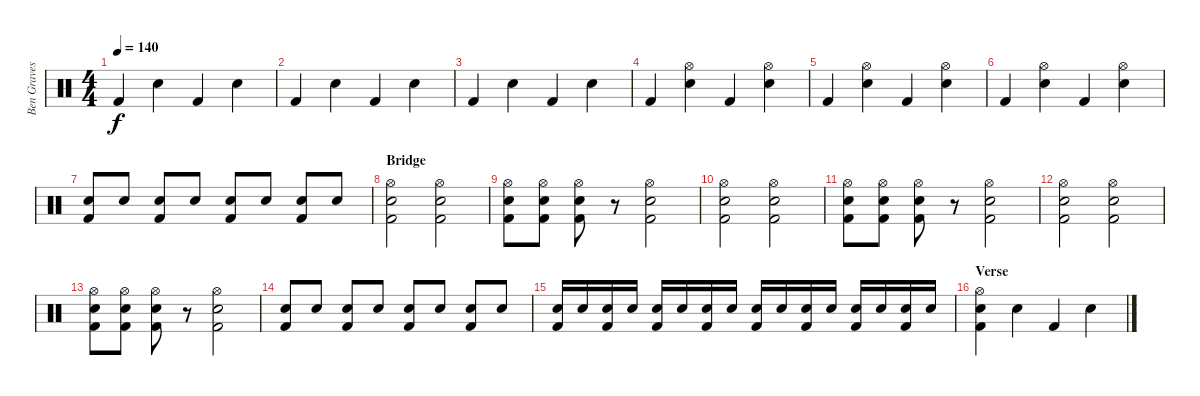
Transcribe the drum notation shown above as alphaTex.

\track ("Ben Graves" "Ben Graves") {instrument percussion}
\staff {score}
\articulation defaults
\ts (4 4)
\tempo 140
\clef neutral
\ks c "Kick (hit) 2".4{dy f} "Electric Snare (hit)".4 "Kick (hit) 2".4 "Electric Snare (hit)".4
|
"Kick (hit) 2".4 "Electric Snare (hit)".4 "Kick (hit) 2".4 "Electric Snare (hit)".4 |
"Kick (hit) 2".4 "Electric Snare (hit)".4 "Kick (hit) 2".4 "Electric Snare (hit)".4 |
"Kick (hit) 2".4 ("Electric Snare (hit)" "Hi-Hat (open)").4 "Kick (hit) 2".4 ("Electric Snare (hit)" "Hi-Hat (open)").4 |
"Kick (hit) 2".4 ("Electric Snare (hit)" "Hi-Hat (open)").4 "Kick (hit) 2".4 ("Electric Snare (hit)" "Hi-Hat (open)").4 |
"Kick (hit) 2".4 ("Electric Snare (hit)" "Hi-Hat (open)").4 "Kick (hit) 2".4 ("Electric Snare (hit)" "Hi-Hat (open)").4 |
("Kick (hit) 2" "Electric Snare (hit)").8 "Electric Snare (hit)".8 ("Kick (hit) 2" "Electric Snare (hit)").8 "Electric Snare (hit)".8 ("Kick (hit) 2" "Electric Snare (hit)").8 "Electric Snare (hit)".8 ("Kick (hit) 2" "Electric Snare (hit)").8 "Electric Snare (hit)".8 |
\section ("" "Bridge")
("Kick (hit) 2" "Electric Snare (hit)" "Hi-Hat (open)").2 ("Kick (hit) 2" "Electric Snare (hit)" "Hi-Hat (open)").2 |
("Kick (hit) 2" "Electric Snare (hit)" "Hi-Hat (open)").8 ("Kick (hit) 2" "Electric Snare (hit)" "Hi-Hat (open)").8 ("Kick (hit) 2" "Electric Snare (hit)" "Hi-Hat (open)").8 r.8 ("Kick (hit) 2" "Electric Snare (hit)" "Hi-Hat (open)").2 |
("Kick (hit) 2" "Electric Snare (hit)" "Hi-Hat (open)").2 ("Kick (hit) 2" "Electric Snare (hit)" "Hi-Hat (open)").2 |
("Kick (hit) 2" "Electric Snare (hit)" "Hi-Hat (open)").8 ("Kick (hit) 2" "Electric Snare (hit)" "Hi-Hat (open)").8 ("Kick (hit) 2" "Electric Snare (hit)" "Hi-Hat (open)").8 r.8 ("Kick (hit) 2" "Electric Snare (hit)" "Hi-Hat (open)").2 |
("Kick (hit) 2" "Electric Snare (hit)" "Hi-Hat (open)").2 ("Kick (hit) 2" "Electric Snare (hit)" "Hi-Hat (open)").2 |
("Kick (hit) 2" "Electric Snare (hit)" "Hi-Hat (open)").8 ("Kick (hit) 2" "Electric Snare (hit)" "Hi-Hat (open)").8 ("Kick (hit) 2" "Electric Snare (hit)" "Hi-Hat (open)").8 r.8 ("Kick (hit) 2" "Electric Snare (hit)" "Hi-Hat (open)").2 |
("Kick (hit) 2" "Electric Snare (hit)").8 "Electric Snare (hit)".8 ("Kick (hit) 2" "Electric Snare (hit)").8 "Electric Snare (hit)".8 ("Kick (hit) 2" "Electric Snare (hit)").8 "Electric Snare (hit)".8 ("Kick (hit) 2" "Electric Snare (hit)").8 "Electric Snare (hit)".8 |
("Kick (hit) 2" "Electric Snare (hit)").16 "Electric Snare (hit)".16 ("Kick (hit) 2" "Electric Snare (hit)").16 "Electric Snare (hit)".16 ("Kick (hit) 2" "Electric Snare (hit)").16 "Electric Snare (hit)".16 ("Kick (hit) 2" "Electric Snare (hit)").16 "Electric Snare (hit)".16 ("Kick (hit) 2" "Electric Snare (hit)").16 "Electric Snare (hit)".16 ("Kick (hit) 2" "Electric Snare (hit)").16 "Electric Snare (hit)".16 ("Kick (hit) 2" "Electric Snare (hit)").16 "Electric Snare (hit)".16 ("Kick (hit) 2" "Electric Snare (hit)").16 "Electric Snare (hit)".16 |
\section ("" "Verse")
("Kick (hit) 2" "Electric Snare (hit)" "Hi-Hat (open)").4 "Electric Snare (hit)".4 "Kick (hit) 2".4 "Electric Snare (hit)".4
